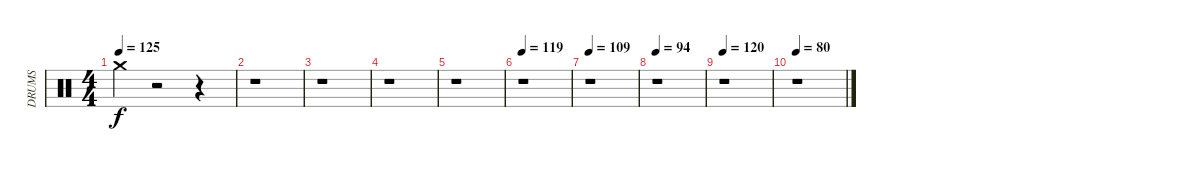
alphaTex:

\track ("DRUMS" "DRUMS") {instrument percussion}
\staff {score}
\articulation defaults
\ts (4 4)
\tempo 125
\clef neutral
\ks c "Crash medium (hit)".4{dy f}
r.2 r.4 |
r.1 |
r.1 |
r.1 |
r.1 |
\tempo 119
r.1 |
\tempo 109
r.1 |
\tempo 94
r.1 |
\tempo 120
r.1 |
\tempo 80
r.1
